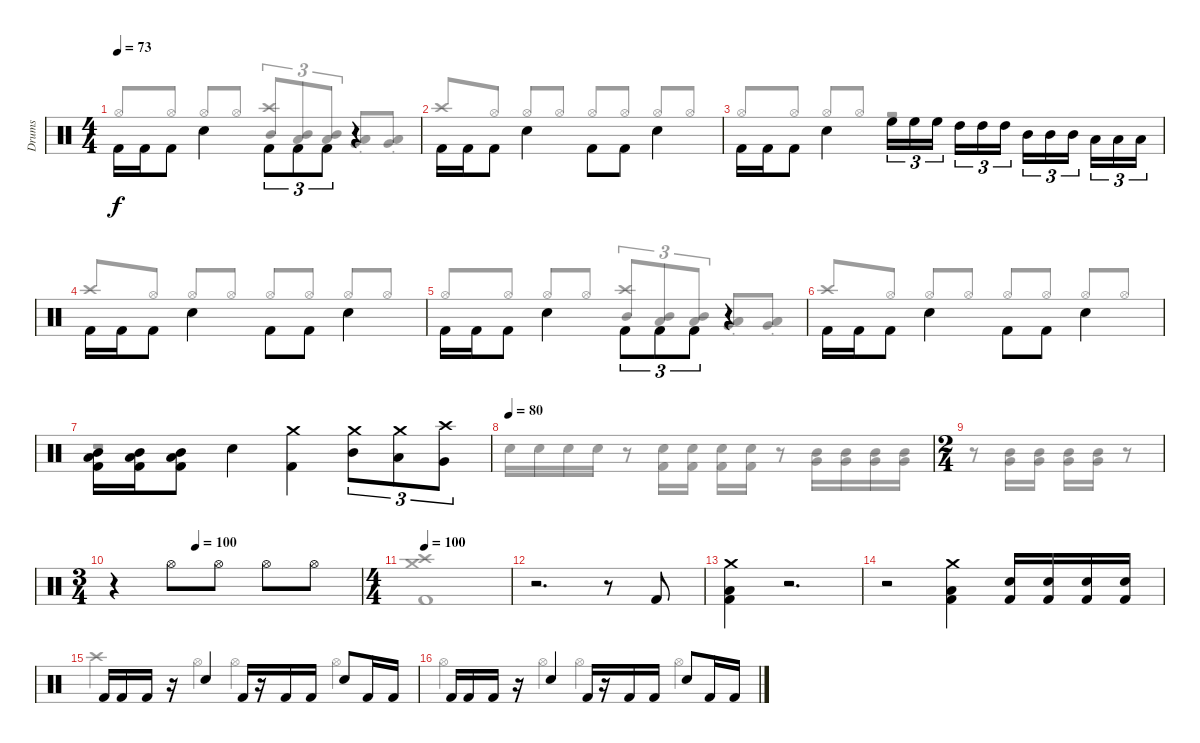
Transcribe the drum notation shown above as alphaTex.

\track ("Drums" "Drums") {instrument percussion}
\staff {score}
\articulation defaults
\voice
\ts (4 4)
\tempo 73
\clef neutral
\ks c "Kick (hit) 2".16{dy f beam Down} "Kick (hit) 2".16{beam Down} "Kick (hit) 2".8{beam Down} "Snare (hit) 2".4{beam Down} "Kick (hit) 2".8{tu (3 2) beam Down} "Kick (hit) 2".8{tu (3 2) beam Down} "Kick (hit) 2".8{tu (3 2) beam Down}
r.4 |
"Kick (hit) 2".16{beam Down} "Kick (hit) 2".16{beam Down} "Kick (hit) 2".8{beam Down} "Snare (hit) 2".4{beam Down} "Kick (hit) 2".8{beam Down} "Kick (hit) 2".8{beam Down} "Snare (hit) 2".4{beam Down} |
"Kick (hit) 2".16{beam Down} "Kick (hit) 2".16{beam Down} "Kick (hit) 2".8{beam Down} "Snare (hit) 2".4{beam Down} "High Floor Tom (hit)".16{tu (3 2) beam Down} "High Floor Tom (hit)".16{tu (3 2) beam Down} "High Floor Tom (hit)".16{tu (3 2) beam Down beam splitsecondary} "High Tom (hit)".16{tu (3 2) beam Down} "High Tom (hit)".16{tu (3 2) beam Down} "High Tom (hit)".16{tu (3 2) beam Down} "Mid Tom (hit)".16{tu (3 2) beam Down} "Mid Tom (hit)".16{tu (3 2) beam Down} "Mid Tom (hit)".16{tu (3 2) beam Down beam splitsecondary} "Low Tom (hit)".16{tu (3 2) beam Down} "Low Tom (hit)".16{tu (3 2) beam Down} "Low Tom (hit)".16{tu (3 2) beam Down} |
"Kick (hit) 2".16{beam Down} "Kick (hit) 2".16{beam Down} "Kick (hit) 2".8{beam Down} "Snare (hit) 2".4{beam Down} "Kick (hit) 2".8{beam Down} "Kick (hit) 2".8{beam Down} "Snare (hit) 2".4{beam Down} |
"Kick (hit) 2".16{beam Down} "Kick (hit) 2".16{beam Down} "Kick (hit) 2".8{beam Down} "Snare (hit) 2".4{beam Down} "Kick (hit) 2".8{tu (3 2) beam Down} "Kick (hit) 2".8{tu (3 2) beam Down} "Kick (hit) 2".8{tu (3 2) beam Down} r.4 |
"Kick (hit) 2".16{beam Down} "Kick (hit) 2".16{beam Down} "Kick (hit) 2".8{beam Down} "Snare (hit) 2".4{beam Down} "Kick (hit) 2".8{beam Down} "Kick (hit) 2".8{beam Down} "Snare (hit) 2".4{beam Down} |
("Kick (hit) 2" "Mid Tom (hit)" "Low Tom (hit)").16{beam Down} ("Kick (hit) 2" "Mid Tom (hit)" "Low Tom (hit)").16{beam Down} ("Kick (hit) 2" "Mid Tom (hit)" "Low Tom (hit)").8{beam Down} "Snare (hit) 2".4{beam Down} ("Crash medium (hit)" "Kick (hit) 2").4{beam Down} ("Mid Tom (hit)" "Crash medium (hit)").8{tu (3 2) beam Down} ("Low Tom (hit)" "Crash medium (hit)").8{tu (3 2) beam Down} ("Very Low Tom (hit)" "Crash high (hit)").8{tu (3 2) beam Down} |
\tempo 80
|
\ts (2 4)
|
\ts (3 4)
\tempo (100 0.3333333333333333)
r.4 "Hi-Hat (open)".8 "Hi-Hat (open)".8 "Hi-Hat (open)".8 "Hi-Hat (open)".8 |
\ts (4 4)
\tempo 100
|
r.2{d} r.8 "Kick (hit) 2".8 |
("Low Tom (hit)" "Crash medium (hit)" "Kick (hit) 2").4 r.2{d} |
r.2 ("Low Tom (hit)" "Crash medium (hit)" "Kick (hit) 2").4 ("Kick (hit) 2" "Snare (hit) 2").16 ("Kick (hit) 2" "Snare (hit) 2").16 ("Kick (hit) 2" "Snare (hit) 2").16 ("Kick (hit) 2" "Snare (hit) 2").16 |
"Kick (hit) 2".16 "Kick (hit) 2".16 "Kick (hit) 2".16 r.16 "Snare (hit) 2".4 "Kick (hit) 2".16 r.16 "Kick (hit) 2".16 "Kick (hit) 2".16 "Snare (hit) 2".8 "Kick (hit) 2".16 "Kick (hit) 2".16 |
"Kick (hit) 2".16 "Kick (hit) 2".16 "Kick (hit) 2".16 r.16 "Snare (hit) 2".4 "Kick (hit) 2".16 r.16 "Kick (hit) 2".16 "Kick (hit) 2".16 "Snare (hit) 2".8 "Kick (hit) 2".16 "Kick (hit) 2".16
\voice
\clef neutral
\ottava regular
\simile none
\ks c "Hi-Hat (open)".8{dy f beam Up} "Hi-Hat (open)".8{beam Up} "Hi-Hat (open)".8{beam Up} "Hi-Hat (open)".8{beam Up}
("Crash high (hit)" "Mid Tom (hit)").8{tu (3 2) beam Up} ("Mid Tom (hit)" "Low Tom (hit)").8{tu (3 2) beam Up} ("Mid Tom (hit)" "Low Tom (hit)").8{tu (3 2) beam Up} ("Very Low Tom (hit)"{st} "Low Tom (hit)"{st}).8{beam Up} ("Low Tom (hit)"{st} "Very Low Tom (hit)"{st}).8{beam Up} |
"Crash high (hit)".8{beam Up} "Hi-Hat (open)".8{beam Up} "Hi-Hat (open)".8{beam Up} "Hi-Hat (open)".8{beam Up} "Hi-Hat (open)".8{beam Up} "Hi-Hat (open)".8{beam Up} "Hi-Hat (open)".8{beam Up} "Hi-Hat (open)".8{beam Up} |
"Hi-Hat (open)".8{beam Up} "Hi-Hat (open)".8{beam Up} "Hi-Hat (open)".8{beam Up} "Hi-Hat (open)".8{beam Up} r.2 |
"Crash high (hit)".8{beam Up} "Hi-Hat (open)".8{beam Up} "Hi-Hat (open)".8{beam Up} "Hi-Hat (open)".8{beam Up} "Hi-Hat (open)".8{beam Up} "Hi-Hat (open)".8{beam Up} "Hi-Hat (open)".8{beam Up} "Hi-Hat (open)".8{beam Up} |
"Hi-Hat (open)".8{beam Up} "Hi-Hat (open)".8{beam Up} "Hi-Hat (open)".8{beam Up} "Hi-Hat (open)".8{beam Up} ("Crash high (hit)" "Mid Tom (hit)").8{tu (3 2) beam Up} ("Mid Tom (hit)" "Low Tom (hit)").8{tu (3 2) beam Up} ("Mid Tom (hit)" "Low Tom (hit)").8{tu (3 2) beam Up} ("Very Low Tom (hit)"{st} "Low Tom (hit)"{st}).8{beam Up} ("Low Tom (hit)"{st} "Very Low Tom (hit)"{st}).8{beam Up} |
"Crash high (hit)".8{beam Up} "Hi-Hat (open)".8{beam Up} "Hi-Hat (open)".8{beam Up} "Hi-Hat (open)".8{beam Up} "Hi-Hat (open)".8{beam Up} "Hi-Hat (open)".8{beam Up} "Hi-Hat (open)".8{beam Up} "Hi-Hat (open)".8{beam Up} |
r.1 |
"Snare (hit) 2".16 "Snare (hit) 2".16 "Snare (hit) 2".16 "Snare (hit) 2".16 r.8 ("Snare (hit) 2" "Kick (hit) 2").16 ("Snare (hit) 2" "Kick (hit) 2").16 ("Snare (hit) 2" "Kick (hit) 2").16 ("Snare (hit) 2" "Kick (hit) 2").16 r.8 ("Mid Tom (hit)" "Very Low Tom (hit)").16 ("Very Low Tom (hit)" "Mid Tom (hit)").16 ("Very Low Tom (hit)" "Mid Tom (hit)").16 ("Mid Tom (hit)" "Very Low Tom (hit)").16 |
r.8 ("Mid Tom (hit)" "Very Low Tom (hit)").16 ("Very Low Tom (hit)" "Mid Tom (hit)").16 ("Very Low Tom (hit)" "Mid Tom (hit)").16 ("Mid Tom (hit)" "Very Low Tom (hit)").16 r.8 |
|
("Kick (hit) 2" "Crash high (hit)" "Crash medium (hit)").1 |
|
|
|
"Crash high (hit)".4 "Hi-Hat (open)".4 "Hi-Hat (open)".4 "Hi-Hat (open)".4 |
"Hi-Hat (open)".4 "Hi-Hat (open)".4 "Hi-Hat (open)".4 "Hi-Hat (open)".4
